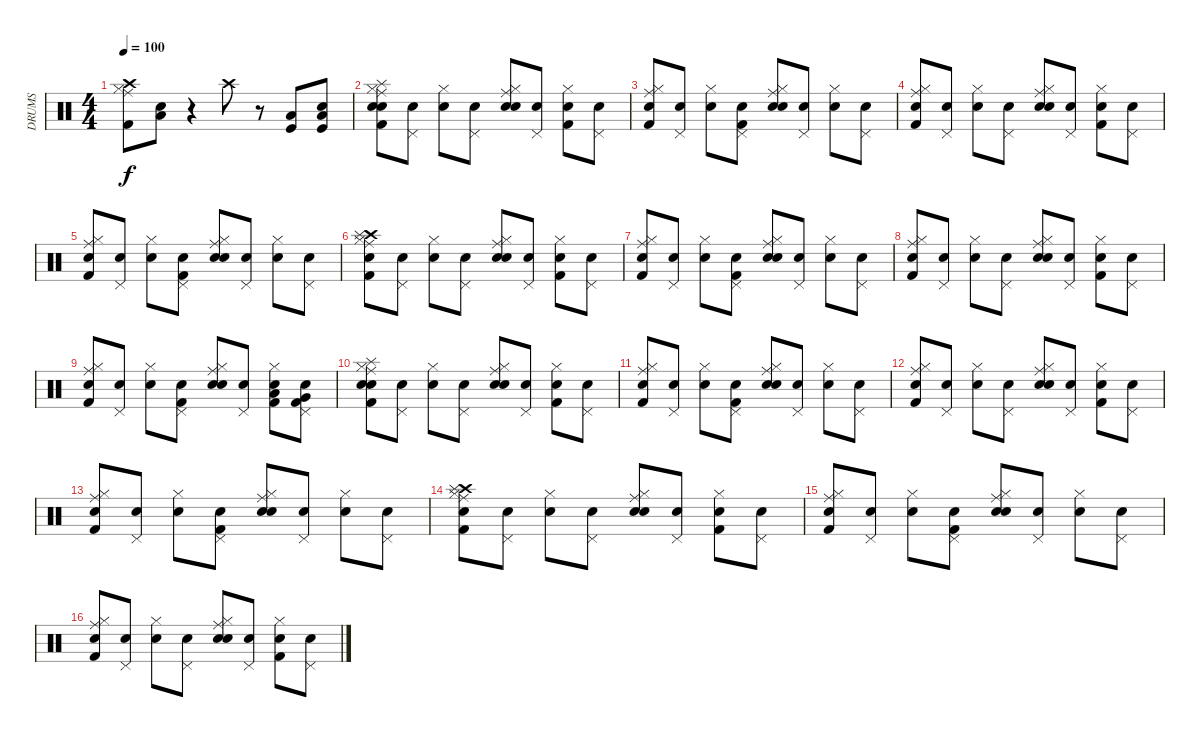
\track ("DRUMS" "DRUMS") {instrument percussion}
\staff {score}
\articulation defaults
\ts (4 4)
\tempo 100
\clef neutral
\ks c
("Crash high (hit)" "Ride (middle)" "Hi-Hat (closed)" "Kick (hit) 2").8{dy f} ("Snare (hit)" "Low Tom (hit)").8 r.4 "Crash high (hit)".8 r.8 ("Kick (hit)" "Low Tom (hit)").8 ("Snare (hit)" "Kick (hit)" "Low Tom (hit)").8 |
("Snare (hit)" "Ride (middle)" "Hi-Hat (closed)" "Kick (hit) 2" "Snare (hit) 2" "Splash (hit)").8 ("Snare (hit)" "Pedal Hi-Hat (hit)").8 ("Snare (hit)" "Hi-Hat (closed)").8 ("Snare (hit)" "Pedal Hi-Hat (hit)").8 ("Snare (hit)" "Ride (middle)" "Hi-Hat (closed)" "Snare (hit) 2").8 ("Snare (hit)" "Pedal Hi-Hat (hit)").8 ("Snare (hit)" "Hi-Hat (closed)" "Kick (hit) 2").8 ("Snare (hit)" "Pedal Hi-Hat (hit)").8 |
("Snare (hit)" "Ride (middle)" "Hi-Hat (closed)" "Kick (hit) 2").8 ("Snare (hit)" "Pedal Hi-Hat (hit)").8 ("Snare (hit)" "Hi-Hat (closed)").8 ("Snare (hit)" "Pedal Hi-Hat (hit)" "Kick (hit) 2").8 ("Snare (hit)" "Ride (middle)" "Hi-Hat (closed)" "Snare (hit) 2").8 ("Snare (hit)" "Pedal Hi-Hat (hit)").8 ("Snare (hit)" "Hi-Hat (closed)").8 ("Snare (hit)" "Pedal Hi-Hat (hit)").8 |
("Snare (hit)" "Kick (hit) 2" "Ride (middle)" "Hi-Hat (closed)").8 ("Snare (hit)" "Pedal Hi-Hat (hit)").8 ("Snare (hit)" "Hi-Hat (closed)").8 ("Snare (hit)" "Pedal Hi-Hat (hit)").8 ("Snare (hit)" "Ride (middle)" "Hi-Hat (closed)" "Snare (hit) 2").8 ("Snare (hit)" "Pedal Hi-Hat (hit)").8 ("Snare (hit)" "Hi-Hat (closed)" "Kick (hit) 2").8 ("Snare (hit)" "Pedal Hi-Hat (hit)").8 |
("Snare (hit)" "Ride (middle)" "Hi-Hat (closed)" "Kick (hit) 2").8 ("Snare (hit)" "Pedal Hi-Hat (hit)").8 ("Snare (hit)" "Hi-Hat (closed)").8 ("Snare (hit)" "Pedal Hi-Hat (hit)" "Kick (hit) 2").8 ("Snare (hit)" "Ride (middle)" "Hi-Hat (closed)" "Snare (hit) 2").8 ("Snare (hit)" "Pedal Hi-Hat (hit)").8 ("Snare (hit)" "Hi-Hat (closed)").8 ("Snare (hit)" "Pedal Hi-Hat (hit)").8 |
("Snare (hit)" "Hi-Hat (closed)" "Ride (middle)" "Kick (hit) 2" "Crash high (hit)" "Splash (hit)").8 ("Snare (hit)" "Pedal Hi-Hat (hit)").8 ("Snare (hit)" "Hi-Hat (closed)").8 ("Snare (hit)" "Pedal Hi-Hat (hit)").8 ("Snare (hit)" "Ride (middle)" "Hi-Hat (closed)" "Snare (hit) 2").8 ("Snare (hit)" "Pedal Hi-Hat (hit)").8 ("Snare (hit)" "Hi-Hat (closed)" "Kick (hit) 2").8 ("Snare (hit)" "Pedal Hi-Hat (hit)").8 |
("Snare (hit)" "Ride (middle)" "Hi-Hat (closed)" "Kick (hit) 2").8 ("Snare (hit)" "Pedal Hi-Hat (hit)").8 ("Snare (hit)" "Hi-Hat (closed)").8 ("Snare (hit)" "Pedal Hi-Hat (hit)" "Kick (hit) 2").8 ("Snare (hit)" "Ride (middle)" "Hi-Hat (closed)" "Snare (hit) 2").8 ("Snare (hit)" "Pedal Hi-Hat (hit)").8 ("Snare (hit)" "Hi-Hat (closed)").8 ("Snare (hit)" "Pedal Hi-Hat (hit)").8 |
("Snare (hit)" "Kick (hit) 2" "Ride (middle)" "Hi-Hat (closed)").8 ("Snare (hit)" "Pedal Hi-Hat (hit)").8 ("Snare (hit)" "Hi-Hat (closed)").8 ("Snare (hit)" "Pedal Hi-Hat (hit)").8 ("Snare (hit)" "Ride (middle)" "Hi-Hat (closed)" "Snare (hit) 2").8 ("Snare (hit)" "Pedal Hi-Hat (hit)").8 ("Snare (hit)" "Hi-Hat (closed)" "Kick (hit) 2").8 ("Snare (hit)" "Pedal Hi-Hat (hit)").8 |
("Snare (hit)" "Ride (middle)" "Hi-Hat (closed)" "Kick (hit) 2").8 ("Snare (hit)" "Pedal Hi-Hat (hit)").8 ("Snare (hit)" "Hi-Hat (closed)").8 ("Snare (hit)" "Pedal Hi-Hat (hit)" "Kick (hit) 2").8 ("Snare (hit)" "Ride (middle)" "Hi-Hat (closed)" "Snare (hit) 2").8 ("Snare (hit)" "Pedal Hi-Hat (hit)").8 ("Snare (hit)" "Kick (hit) 2" "Low Tom (hit)" "Hi-Hat (closed)").8 ("Snare (hit)" "Very Low Tom (hit)" "Kick (hit) 2" "Pedal Hi-Hat (hit)").8 |
("Snare (hit)" "Ride (middle)" "Hi-Hat (closed)" "Kick (hit) 2" "Snare (hit) 2" "Splash (hit)").8 ("Snare (hit)" "Pedal Hi-Hat (hit)").8 ("Snare (hit)" "Hi-Hat (closed)").8 ("Snare (hit)" "Pedal Hi-Hat (hit)").8 ("Snare (hit)" "Ride (middle)" "Hi-Hat (closed)" "Snare (hit) 2").8 ("Snare (hit)" "Pedal Hi-Hat (hit)").8 ("Snare (hit)" "Hi-Hat (closed)" "Kick (hit) 2").8 ("Snare (hit)" "Pedal Hi-Hat (hit)").8 |
("Snare (hit)" "Ride (middle)" "Hi-Hat (closed)" "Kick (hit) 2").8 ("Snare (hit)" "Pedal Hi-Hat (hit)").8 ("Snare (hit)" "Hi-Hat (closed)").8 ("Snare (hit)" "Pedal Hi-Hat (hit)" "Kick (hit) 2").8 ("Snare (hit)" "Ride (middle)" "Hi-Hat (closed)" "Snare (hit) 2").8 ("Snare (hit)" "Pedal Hi-Hat (hit)").8 ("Snare (hit)" "Hi-Hat (closed)").8 ("Snare (hit)" "Pedal Hi-Hat (hit)").8 |
("Snare (hit)" "Kick (hit) 2" "Ride (middle)" "Hi-Hat (closed)").8 ("Snare (hit)" "Pedal Hi-Hat (hit)").8 ("Snare (hit)" "Hi-Hat (closed)").8 ("Snare (hit)" "Pedal Hi-Hat (hit)").8 ("Snare (hit)" "Ride (middle)" "Hi-Hat (closed)" "Snare (hit) 2").8 ("Snare (hit)" "Pedal Hi-Hat (hit)").8 ("Snare (hit)" "Hi-Hat (closed)" "Kick (hit) 2").8 ("Snare (hit)" "Pedal Hi-Hat (hit)").8 |
("Snare (hit)" "Ride (middle)" "Hi-Hat (closed)" "Kick (hit) 2").8 ("Snare (hit)" "Pedal Hi-Hat (hit)").8 ("Snare (hit)" "Hi-Hat (closed)").8 ("Snare (hit)" "Pedal Hi-Hat (hit)" "Kick (hit) 2").8 ("Snare (hit)" "Ride (middle)" "Hi-Hat (closed)" "Snare (hit) 2").8 ("Snare (hit)" "Pedal Hi-Hat (hit)").8 ("Snare (hit)" "Hi-Hat (closed)").8 ("Snare (hit)" "Pedal Hi-Hat (hit)").8 |
("Snare (hit)" "Hi-Hat (closed)" "Ride (middle)" "Kick (hit) 2" "Crash high (hit)" "Splash (hit)").8 ("Snare (hit)" "Pedal Hi-Hat (hit)").8 ("Snare (hit)" "Hi-Hat (closed)").8 ("Snare (hit)" "Pedal Hi-Hat (hit)").8 ("Snare (hit)" "Ride (middle)" "Hi-Hat (closed)" "Snare (hit) 2").8 ("Snare (hit)" "Pedal Hi-Hat (hit)").8 ("Snare (hit)" "Hi-Hat (closed)" "Kick (hit) 2").8 ("Snare (hit)" "Pedal Hi-Hat (hit)").8 |
("Snare (hit)" "Ride (middle)" "Hi-Hat (closed)" "Kick (hit) 2").8 ("Snare (hit)" "Pedal Hi-Hat (hit)").8 ("Snare (hit)" "Hi-Hat (closed)").8 ("Snare (hit)" "Pedal Hi-Hat (hit)" "Kick (hit) 2").8 ("Snare (hit)" "Ride (middle)" "Hi-Hat (closed)" "Snare (hit) 2").8 ("Snare (hit)" "Pedal Hi-Hat (hit)").8 ("Snare (hit)" "Hi-Hat (closed)").8 ("Snare (hit)" "Pedal Hi-Hat (hit)").8 |
("Snare (hit)" "Kick (hit) 2" "Ride (middle)" "Hi-Hat (closed)").8 ("Snare (hit)" "Pedal Hi-Hat (hit)").8 ("Snare (hit)" "Hi-Hat (closed)").8 ("Snare (hit)" "Pedal Hi-Hat (hit)").8 ("Snare (hit)" "Ride (middle)" "Hi-Hat (closed)" "Snare (hit) 2").8 ("Snare (hit)" "Pedal Hi-Hat (hit)").8 ("Snare (hit)" "Hi-Hat (closed)" "Kick (hit) 2").8 ("Snare (hit)" "Pedal Hi-Hat (hit)").8
